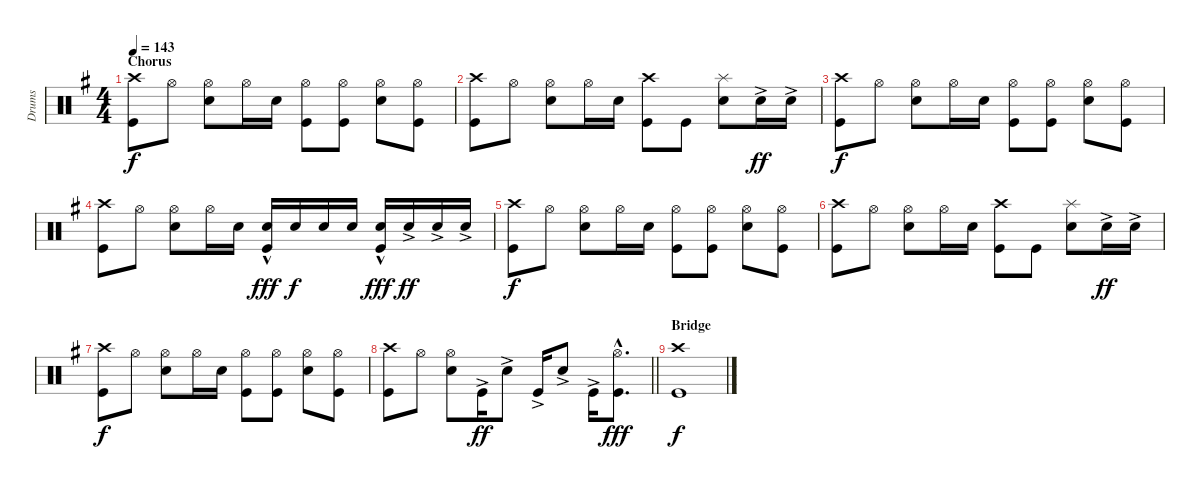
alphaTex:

\track ("Drums" "Drums") {instrument percussion}
\staff {score}
\articulation defaults
\ts (4 4)
\section ("" "Chorus")
\tempo 143
\clef neutral
\ks eminor
("Crash high (hit)" "Kick (hit)").8{dy f} "Hi-Hat (open)".8 ("Hi-Hat (open)" "Snare (hit) 2").8 "Hi-Hat (open)".16 "Snare (hit) 2".16 ("Hi-Hat (open)" "Kick (hit)").8 ("Hi-Hat (open)" "Kick (hit)").8 ("Hi-Hat (open)" "Snare (hit) 2").8 ("Hi-Hat (open)" "Kick (hit)").8 |
("Crash high (hit)" "Kick (hit)").8 "Hi-Hat (open)".8 ("Hi-Hat (open)" "Snare (hit) 2").8 "Hi-Hat (open)".16 "Snare (hit) 2".16 ("Crash high (hit)" "Kick (hit)").8 "Kick (hit)".8 ("Splash (hit)" "Snare (hit) 2").8 "Snare (hit) 2"{ac}.16{dy ff} "Snare (hit) 2"{ac}.16 |
("Crash high (hit)" "Kick (hit)").8{dy f} "Hi-Hat (open)".8 ("Hi-Hat (open)" "Snare (hit) 2").8 "Hi-Hat (open)".16 "Snare (hit) 2".16 ("Hi-Hat (open)" "Kick (hit)").8 ("Hi-Hat (open)" "Kick (hit)").8 ("Hi-Hat (open)" "Snare (hit) 2").8 ("Hi-Hat (open)" "Kick (hit)").8 |
("Crash high (hit)" "Kick (hit)").8 "Hi-Hat (open)".8 ("Hi-Hat (open)" "Snare (hit) 2").8 "Hi-Hat (open)".16 "Snare (hit) 2".16 ("Snare (hit) 2"{hac} "Kick (hit)").16{dy fff} "Snare (hit) 2".16{dy f} "Snare (hit) 2".16 "Snare (hit) 2".16 ("Snare (hit) 2"{hac} "Kick (hit)").16{dy fff} "Snare (hit) 2"{ac}.16{dy ff} "Snare (hit) 2"{ac}.16 "Snare (hit) 2"{ac}.16 |
("Crash high (hit)" "Kick (hit)").8{dy f} "Hi-Hat (open)".8 ("Hi-Hat (open)" "Snare (hit) 2").8 "Hi-Hat (open)".16 "Snare (hit) 2".16 ("Hi-Hat (open)" "Kick (hit)").8 ("Hi-Hat (open)" "Kick (hit)").8 ("Hi-Hat (open)" "Snare (hit) 2").8 ("Hi-Hat (open)" "Kick (hit)").8 |
("Crash high (hit)" "Kick (hit)").8 "Hi-Hat (open)".8 ("Hi-Hat (open)" "Snare (hit) 2").8 "Hi-Hat (open)".16 "Snare (hit) 2".16 ("Crash high (hit)" "Kick (hit)").8 "Kick (hit)".8 ("Splash (hit)" "Snare (hit) 2").8 "Snare (hit) 2"{ac}.16{dy ff} "Snare (hit) 2"{ac}.16 |
("Crash high (hit)" "Kick (hit)").8{dy f} "Hi-Hat (open)".8 ("Hi-Hat (open)" "Snare (hit) 2").8 "Hi-Hat (open)".16 "Snare (hit) 2".16 ("Hi-Hat (open)" "Kick (hit)").8 ("Hi-Hat (open)" "Kick (hit)").8 ("Hi-Hat (open)" "Snare (hit) 2").8 ("Hi-Hat (open)" "Kick (hit)").8 |
\barLineRight lightlight
("Crash high (hit)" "Kick (hit)").8 "Hi-Hat (open)".8 ("Hi-Hat (open)" "Snare (hit) 2").8 "Kick (hit)"{ac}.16{dy ff} "Snare (hit) 2"{ac}.8 "Kick (hit)"{ac}.16 "Snare (hit) 2"{ac}.8 "Kick (hit)"{ac}.16 ("Hi-Hat (open)"{hac} "Kick (hit)"{hac}).8{d dy fff} |
\section ("" "Bridge")
("Crash high (hit)" "Kick (hit)").1{dy f}
